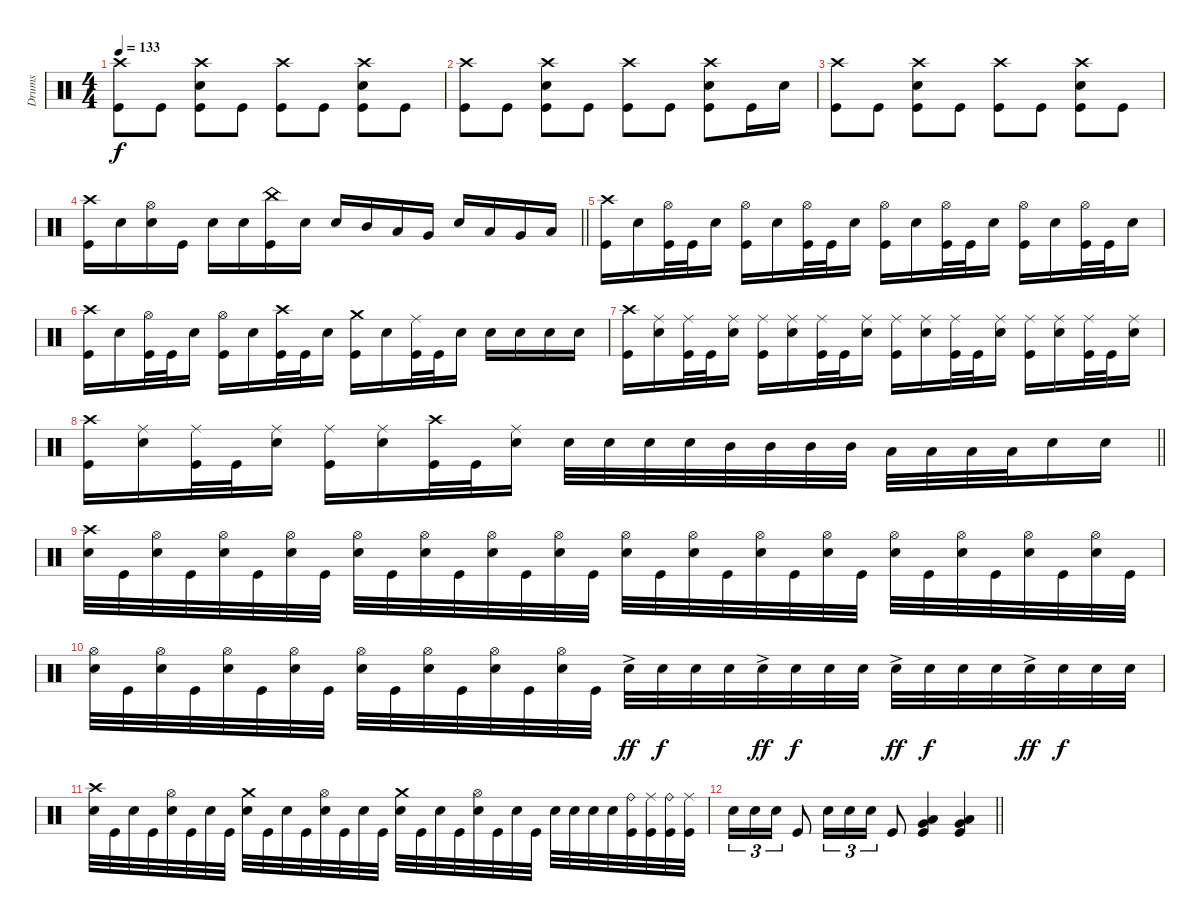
\track ("Drums" "Drums") {instrument percussion}
\staff
\articulation defaults
\ts (4 4)
\tempo 133
\clef neutral
\ks c
("Crash high (hit)" "Kick (hit)").8{dy f} "Kick (hit)".8 ("Crash high (hit)" "Electric Snare (hit)" "Kick (hit)").8 "Kick (hit)".8 ("Crash high (hit)" "Kick (hit)").8 "Kick (hit)".8 ("Crash high (hit)" "Electric Snare (hit)" "Kick (hit)").8 "Kick (hit)".8 |
("Crash high (hit)" "Kick (hit)").8 "Kick (hit)".8 ("Crash high (hit)" "Electric Snare (hit)" "Kick (hit)").8 "Kick (hit)".8 ("Crash high (hit)" "Kick (hit)").8 "Kick (hit)".8 ("Crash high (hit)" "Electric Snare (hit)" "Kick (hit)").8 "Kick (hit)".16 "Electric Snare (hit)".16 |
("Crash high (hit)" "Kick (hit)").8 "Kick (hit)".8 ("Crash high (hit)" "Electric Snare (hit)" "Kick (hit)").8 "Kick (hit)".8 ("Crash high (hit)" "Kick (hit)").8 "Kick (hit)".8 ("Crash high (hit)" "Electric Snare (hit)" "Kick (hit)").8 "Kick (hit)".8 |
\barLineRight lightlight
("Crash high (hit)" "Kick (hit)").16 "Electric Snare (hit)".16 ("Hi-Hat (open)" "Electric Snare (hit)").16 "Kick (hit)".16 "Electric Snare (hit)".16 "Electric Snare (hit)".16 ("China (hit)" "Kick (hit)").16 "Electric Snare (hit)".16 "Electric Snare (hit)".16 "Mid Tom (hit)".16 "Low Tom (hit)".16 "Very Low Tom (hit)".16 "Electric Snare (hit)".16 "Low Tom (hit)".16 "Very Low Tom (hit)".16 "Low Floor Tom (hit)".16 |
("Crash high (hit)" "Kick (hit)").16 "Electric Snare (hit)".16 ("Hi-Hat (open)" "Kick (hit)").32 "Kick (hit)".32 "Electric Snare (hit)".16 ("Hi-Hat (open)" "Kick (hit)").16 "Electric Snare (hit)".16 ("Hi-Hat (open)" "Kick (hit)").32 "Kick (hit)".32 "Electric Snare (hit)".16 ("Hi-Hat (open)" "Kick (hit)").16 "Electric Snare (hit)".16 ("Hi-Hat (open)" "Kick (hit)").32 "Kick (hit)".32 "Electric Snare (hit)".16 ("Hi-Hat (open)" "Kick (hit)").16 "Electric Snare (hit)".16 ("Hi-Hat (open)" "Kick (hit)").32 "Kick (hit)".32 "Electric Snare (hit)".16 |
("Crash high (hit)" "Kick (hit)").16 "Electric Snare (hit)".16 ("Hi-Hat (open)" "Kick (hit)").32 "Kick (hit)".32 "Electric Snare (hit)".16 ("Hi-Hat (open)" "Kick (hit)").16 "Electric Snare (hit)".16 ("Crash high (hit)" "Kick (hit)").32 "Kick (hit)".32 "Electric Snare (hit)".16 ("Crash medium (hit)" "Kick (hit)").16 "Electric Snare (hit)".16 ("Ride (middle)" "Kick (hit)").32 "Kick (hit)".32 "Electric Snare (hit)".16 "Electric Snare (hit)".16 "Electric Snare (hit)".16 "Electric Snare (hit)".16 "Electric Snare (hit)".16 |
("Crash high (hit)" "Kick (hit)").16 ("Ride (middle)" "Electric Snare (hit)").16 ("Ride (middle)" "Kick (hit)").32 "Kick (hit)".32 ("Ride (middle)" "Electric Snare (hit)").16 ("Ride (middle)" "Kick (hit)").16 ("Ride (middle)" "Electric Snare (hit)").16 ("Ride (middle)" "Kick (hit)").32 "Kick (hit)".32 ("Ride (middle)" "Electric Snare (hit)").16 ("Ride (middle)" "Kick (hit)").16 ("Ride (middle)" "Electric Snare (hit)").16 ("Ride (middle)" "Kick (hit)").32 "Kick (hit)".32 ("Ride (middle)" "Electric Snare (hit)").16 ("Ride (middle)" "Kick (hit)").16 ("Ride (middle)" "Electric Snare (hit)").16 ("Ride (middle)" "Kick (hit)").32 "Kick (hit)".32 ("Ride (middle)" "Electric Snare (hit)").16 |
\barLineRight lightlight
("Crash high (hit)" "Kick (hit)").16 ("Ride (middle)" "Electric Snare (hit)").16 ("Ride (middle)" "Kick (hit)").32 "Kick (hit)".32 ("Ride (middle)" "Electric Snare (hit)").16 ("Ride (middle)" "Kick (hit)").16 ("Ride (middle)" "Electric Snare (hit)").16 ("Crash high (hit)" "Kick (hit)").32 "Kick (hit)".32 ("Ride (middle)" "Electric Snare (hit)").16 "Electric Snare (hit)".32 "Electric Snare (hit)".32 "Electric Snare (hit)".32 "Electric Snare (hit)".32 "Mid Tom (hit)".32 "Mid Tom (hit)".32 "Mid Tom (hit)".32 "Mid Tom (hit)".32 "Low Tom (hit)".32 "Low Tom (hit)".32 "Low Tom (hit)".32 "Low Tom (hit)".32 "Electric Snare (hit)".16 "Electric Snare (hit)".16 |
("Crash high (hit)" "Electric Snare (hit)").32 "Kick (hit)".32 ("Hi-Hat (open)" "Electric Snare (hit)").32 "Kick (hit)".32 ("Hi-Hat (open)" "Electric Snare (hit)").32 "Kick (hit)".32 ("Hi-Hat (open)" "Electric Snare (hit)").32 "Kick (hit)".32 ("Hi-Hat (open)" "Electric Snare (hit)").32 "Kick (hit)".32 ("Hi-Hat (open)" "Electric Snare (hit)").32 "Kick (hit)".32 ("Hi-Hat (open)" "Electric Snare (hit)").32 "Kick (hit)".32 ("Hi-Hat (open)" "Electric Snare (hit)").32 "Kick (hit)".32 ("Hi-Hat (open)" "Electric Snare (hit)").32 "Kick (hit)".32 ("Hi-Hat (open)" "Electric Snare (hit)").32 "Kick (hit)".32 ("Hi-Hat (open)" "Electric Snare (hit)").32 "Kick (hit)".32 ("Hi-Hat (open)" "Electric Snare (hit)").32 "Kick (hit)".32 ("Hi-Hat (open)" "Electric Snare (hit)").32 "Kick (hit)".32 ("Hi-Hat (open)" "Electric Snare (hit)").32 "Kick (hit)".32 ("Hi-Hat (open)" "Electric Snare (hit)").32 "Kick (hit)".32 ("Hi-Hat (open)" "Electric Snare (hit)").32 "Kick (hit)".32 |
("Hi-Hat (open)" "Electric Snare (hit)").32 "Kick (hit)".32 ("Hi-Hat (open)" "Electric Snare (hit)").32 "Kick (hit)".32 ("Hi-Hat (open)" "Electric Snare (hit)").32 "Kick (hit)".32 ("Hi-Hat (open)" "Electric Snare (hit)").32 "Kick (hit)".32 ("Hi-Hat (open)" "Electric Snare (hit)").32 "Kick (hit)".32 ("Hi-Hat (open)" "Electric Snare (hit)").32 "Kick (hit)".32 ("Hi-Hat (open)" "Electric Snare (hit)").32 "Kick (hit)".32 ("Hi-Hat (open)" "Electric Snare (hit)").32 "Kick (hit)".32 "Electric Snare (hit)"{ac}.32{dy ff} "Electric Snare (hit)".32{dy f} "Electric Snare (hit)".32 "Electric Snare (hit)".32 "Electric Snare (hit)"{ac}.32{dy ff} "Electric Snare (hit)".32{dy f} "Electric Snare (hit)".32 "Electric Snare (hit)".32 "Electric Snare (hit)"{ac}.32{dy ff} "Electric Snare (hit)".32{dy f} "Electric Snare (hit)".32 "Electric Snare (hit)".32 "Electric Snare (hit)"{ac}.32{dy ff} "Electric Snare (hit)".32{dy f} "Electric Snare (hit)".32 "Electric Snare (hit)".32 |
("Crash high (hit)" "Electric Snare (hit)").32 "Kick (hit)".32 "Electric Snare (hit)".32 "Kick (hit)".32 ("Hi-Hat (open)" "Electric Snare (hit)").32 "Kick (hit)".32 "Electric Snare (hit)".32 "Kick (hit)".32 ("Crash medium (hit)" "Electric Snare (hit)").32 "Kick (hit)".32 "Electric Snare (hit)".32 "Kick (hit)".32 ("Hi-Hat (open)" "Electric Snare (hit)").32 "Kick (hit)".32 "Electric Snare (hit)".32 "Kick (hit)".32 ("Crash medium (hit)" "Electric Snare (hit)").32 "Kick (hit)".32 "Electric Snare (hit)".32 "Kick (hit)".32 ("Hi-Hat (open)" "Electric Snare (hit)").32 "Kick (hit)".32 "Electric Snare (hit)".32 "Kick (hit)".32 "Electric Snare (hit)".32 "Electric Snare (hit)".32 "Electric Snare (hit)".32 "Electric Snare (hit)".32 ("Ride (bell)" "Kick (hit)").32 ("Ride (middle)" "Kick (hit)").32 ("Ride (bell)" "Kick (hit)").32 ("Ride (middle)" "Kick (hit)").32 |
\barLineRight lightlight "Electric Snare (hit)".16{tu (3 2)} "Electric Snare (hit)".16{tu (3 2)} "Electric Snare (hit)".16{tu (3 2)} "Kick (hit)".8 "Electric Snare (hit)".16{tu (3 2)} "Electric Snare (hit)".16{tu (3 2)} "Electric Snare (hit)".16{tu (3 2)} "Kick (hit)".8
("Very Low Tom (hit)" "Low Floor Tom (hit)" "Kick (hit)").4 ("Very Low Tom (hit)" "Low Floor Tom (hit)" "Kick (hit)").4
